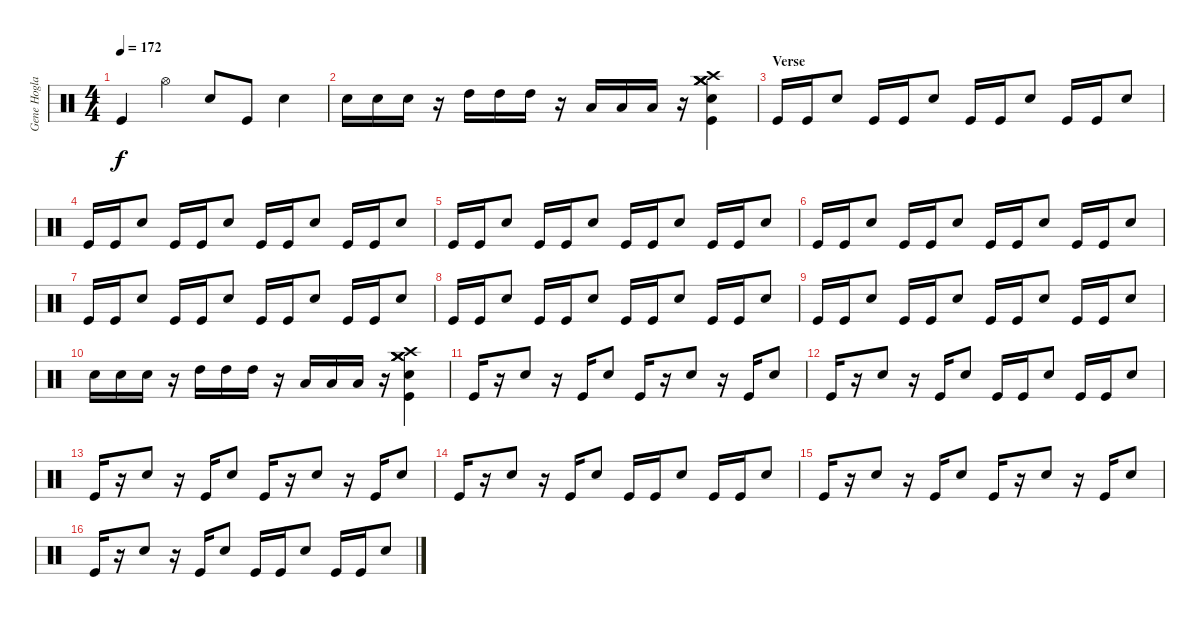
\track ("Gene Hoglan" "Gene Hogla") {instrument percussion}
\staff {score}
\articulation defaults
\ts (4 4)
\tempo 172
\clef neutral
\ks c "Kick (hit)".4{dy f} "Hi-Hat (open)".4 "Snare (hit) 2".8 "Kick (hit)".8 "Snare (hit) 2".4
|
"Snare (hit) 2".16 "Snare (hit) 2".16 "Snare (hit) 2".16 r.16 "High Tom (hit)".16 "High Tom (hit)".16 "High Tom (hit)".16 r.16 "Low Floor Tom (hit)".16 "Low Floor Tom (hit)".16 "Low Floor Tom (hit)".16 r.16 ("Crash high (hit)" "Crash medium (hit)" "Crash medium (hit)" "Crash medium (hit)" "Snare (hit) 2" "Kick (hit)").4 |
\section ("" "Verse")
"Kick (hit)".16 "Kick (hit)".16 "Snare (hit) 2".8 "Kick (hit)".16 "Kick (hit)".16 "Snare (hit) 2".8 "Kick (hit)".16 "Kick (hit)".16 "Snare (hit) 2".8 "Kick (hit)".16 "Kick (hit)".16 "Snare (hit) 2".8 |
"Kick (hit)".16 "Kick (hit)".16 "Snare (hit) 2".8 "Kick (hit)".16 "Kick (hit)".16 "Snare (hit) 2".8 "Kick (hit)".16 "Kick (hit)".16 "Snare (hit) 2".8 "Kick (hit)".16 "Kick (hit)".16 "Snare (hit) 2".8 |
"Kick (hit)".16 "Kick (hit)".16 "Snare (hit) 2".8 "Kick (hit)".16 "Kick (hit)".16 "Snare (hit) 2".8 "Kick (hit)".16 "Kick (hit)".16 "Snare (hit) 2".8 "Kick (hit)".16 "Kick (hit)".16 "Snare (hit) 2".8 |
"Kick (hit)".16 "Kick (hit)".16 "Snare (hit) 2".8 "Kick (hit)".16 "Kick (hit)".16 "Snare (hit) 2".8 "Kick (hit)".16 "Kick (hit)".16 "Snare (hit) 2".8 "Kick (hit)".16 "Kick (hit)".16 "Snare (hit) 2".8 |
"Kick (hit)".16 "Kick (hit)".16 "Snare (hit) 2".8 "Kick (hit)".16 "Kick (hit)".16 "Snare (hit) 2".8 "Kick (hit)".16 "Kick (hit)".16 "Snare (hit) 2".8 "Kick (hit)".16 "Kick (hit)".16 "Snare (hit) 2".8 |
"Kick (hit)".16 "Kick (hit)".16 "Snare (hit) 2".8 "Kick (hit)".16 "Kick (hit)".16 "Snare (hit) 2".8 "Kick (hit)".16 "Kick (hit)".16 "Snare (hit) 2".8 "Kick (hit)".16 "Kick (hit)".16 "Snare (hit) 2".8 |
"Kick (hit)".16 "Kick (hit)".16 "Snare (hit) 2".8 "Kick (hit)".16 "Kick (hit)".16 "Snare (hit) 2".8 "Kick (hit)".16 "Kick (hit)".16 "Snare (hit) 2".8 "Kick (hit)".16 "Kick (hit)".16 "Snare (hit) 2".8 |
"Snare (hit) 2".16 "Snare (hit) 2".16 "Snare (hit) 2".16 r.16 "High Tom (hit)".16 "High Tom (hit)".16 "High Tom (hit)".16 r.16 "Low Floor Tom (hit)".16 "Low Floor Tom (hit)".16 "Low Floor Tom (hit)".16 r.16 ("Crash high (hit)" "Crash medium (hit)" "Crash medium (hit)" "Crash medium (hit)" "Snare (hit) 2" "Kick (hit)").4 |
"Kick (hit)".16 r.16 "Snare (hit) 2".8 r.16 "Kick (hit)".16 "Snare (hit) 2".8 "Kick (hit)".16 r.16 "Snare (hit) 2".8 r.16 "Kick (hit)".16 "Snare (hit) 2".8 |
"Kick (hit)".16 r.16 "Snare (hit) 2".8 r.16 "Kick (hit)".16 "Snare (hit) 2".8 "Kick (hit)".16 "Kick (hit)".16 "Snare (hit) 2".8 "Kick (hit)".16 "Kick (hit)".16 "Snare (hit) 2".8 |
"Kick (hit)".16 r.16 "Snare (hit) 2".8 r.16 "Kick (hit)".16 "Snare (hit) 2".8 "Kick (hit)".16 r.16 "Snare (hit) 2".8 r.16 "Kick (hit)".16 "Snare (hit) 2".8 |
"Kick (hit)".16 r.16 "Snare (hit) 2".8 r.16 "Kick (hit)".16 "Snare (hit) 2".8 "Kick (hit)".16 "Kick (hit)".16 "Snare (hit) 2".8 "Kick (hit)".16 "Kick (hit)".16 "Snare (hit) 2".8 |
"Kick (hit)".16 r.16 "Snare (hit) 2".8 r.16 "Kick (hit)".16 "Snare (hit) 2".8 "Kick (hit)".16 r.16 "Snare (hit) 2".8 r.16 "Kick (hit)".16 "Snare (hit) 2".8 |
"Kick (hit)".16 r.16 "Snare (hit) 2".8 r.16 "Kick (hit)".16 "Snare (hit) 2".8 "Kick (hit)".16 "Kick (hit)".16 "Snare (hit) 2".8 "Kick (hit)".16 "Kick (hit)".16 "Snare (hit) 2".8
